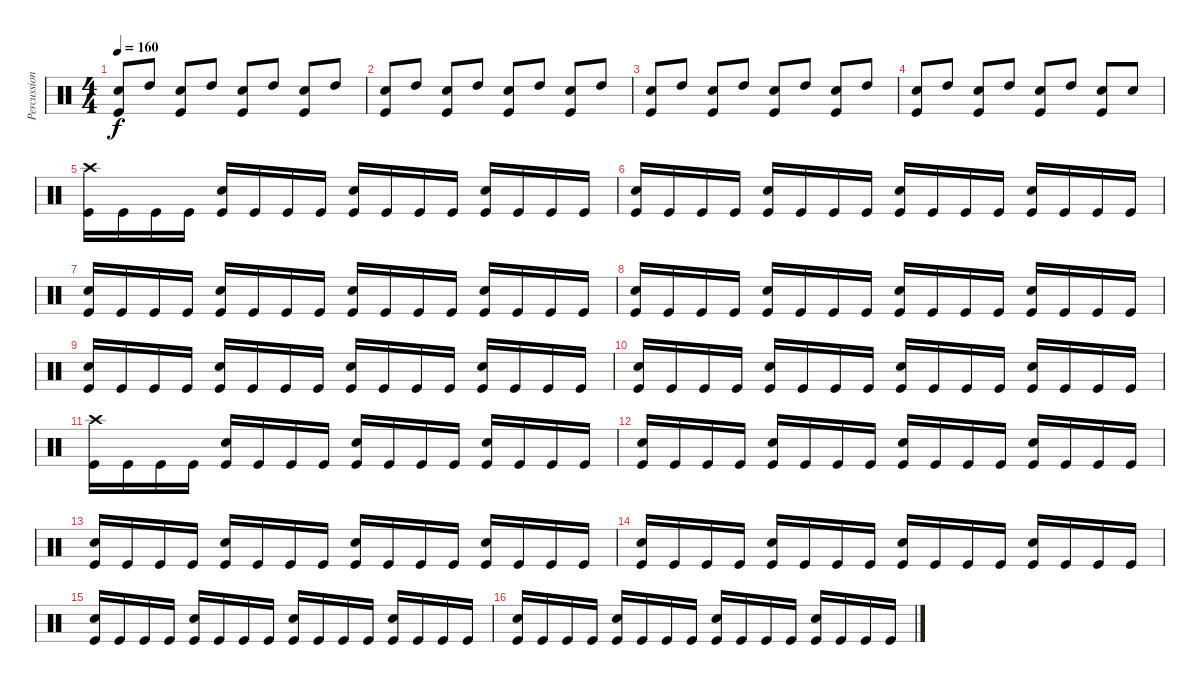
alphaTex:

\track ("Percussioni" "Percussion") {instrument percussion}
\staff {score}
\articulation defaults
\ts (4 4)
\tempo 160
\clef neutral
\ks c
("Snare (hit) 2" "Kick (hit)").8{dy f} "High Tom (hit)".8 ("Snare (hit) 2" "Kick (hit)").8 "High Tom (hit)".8 ("Snare (hit) 2" "Kick (hit)").8 "High Tom (hit)".8 ("Snare (hit) 2" "Kick (hit)").8 "High Tom (hit)".8 |
("Snare (hit) 2" "Kick (hit)").8 "High Tom (hit)".8 ("Snare (hit) 2" "Kick (hit)").8 "High Tom (hit)".8 ("Snare (hit) 2" "Kick (hit)").8 "High Tom (hit)".8 ("Snare (hit) 2" "Kick (hit)").8 "High Tom (hit)".8 |
("Snare (hit) 2" "Kick (hit)").8 "High Tom (hit)".8 ("Snare (hit) 2" "Kick (hit)").8 "High Tom (hit)".8 ("Snare (hit) 2" "Kick (hit)").8 "High Tom (hit)".8 ("Snare (hit) 2" "Kick (hit)").8 "High Tom (hit)".8 |
("Snare (hit) 2" "Kick (hit)").8 "High Tom (hit)".8 ("Snare (hit) 2" "Kick (hit)").8 "High Tom (hit)".8 ("Snare (hit) 2" "Kick (hit)").8 "High Tom (hit)".8 ("Snare (hit) 2" "Kick (hit)").8 "Snare (hit) 2".8 |
("Crash high (hit)" "Kick (hit)").16 "Kick (hit)".16 "Kick (hit)".16 "Kick (hit)".16 ("Snare (hit) 2" "Kick (hit)").16 "Kick (hit)".16 "Kick (hit)".16 "Kick (hit)".16 ("Snare (hit) 2" "Kick (hit)").16 "Kick (hit)".16 "Kick (hit)".16 "Kick (hit)".16 ("Snare (hit) 2" "Kick (hit)").16 "Kick (hit)".16 "Kick (hit)".16 "Kick (hit)".16 |
("Snare (hit) 2" "Kick (hit)").16 "Kick (hit)".16 "Kick (hit)".16 "Kick (hit)".16 ("Snare (hit) 2" "Kick (hit)").16 "Kick (hit)".16 "Kick (hit)".16 "Kick (hit)".16 ("Snare (hit) 2" "Kick (hit)").16 "Kick (hit)".16 "Kick (hit)".16 "Kick (hit)".16 ("Snare (hit) 2" "Kick (hit)").16 "Kick (hit)".16 "Kick (hit)".16 "Kick (hit)".16 |
("Snare (hit) 2" "Kick (hit)").16 "Kick (hit)".16 "Kick (hit)".16 "Kick (hit)".16 ("Snare (hit) 2" "Kick (hit)").16 "Kick (hit)".16 "Kick (hit)".16 "Kick (hit)".16 ("Snare (hit) 2" "Kick (hit)").16 "Kick (hit)".16 "Kick (hit)".16 "Kick (hit)".16 ("Snare (hit) 2" "Kick (hit)").16 "Kick (hit)".16 "Kick (hit)".16 "Kick (hit)".16 |
("Snare (hit) 2" "Kick (hit)").16 "Kick (hit)".16 "Kick (hit)".16 "Kick (hit)".16 ("Snare (hit) 2" "Kick (hit)").16 "Kick (hit)".16 "Kick (hit)".16 "Kick (hit)".16 ("Snare (hit) 2" "Kick (hit)").16 "Kick (hit)".16 "Kick (hit)".16 "Kick (hit)".16 ("Snare (hit) 2" "Kick (hit)").16 "Kick (hit)".16 "Kick (hit)".16 "Kick (hit)".16 |
("Snare (hit) 2" "Kick (hit)").16 "Kick (hit)".16 "Kick (hit)".16 "Kick (hit)".16 ("Snare (hit) 2" "Kick (hit)").16 "Kick (hit)".16 "Kick (hit)".16 "Kick (hit)".16 ("Snare (hit) 2" "Kick (hit)").16 "Kick (hit)".16 "Kick (hit)".16 "Kick (hit)".16 ("Snare (hit) 2" "Kick (hit)").16 "Kick (hit)".16 "Kick (hit)".16 "Kick (hit)".16 |
("Snare (hit) 2" "Kick (hit)").16 "Kick (hit)".16 "Kick (hit)".16 "Kick (hit)".16 ("Snare (hit) 2" "Kick (hit)").16 "Kick (hit)".16 "Kick (hit)".16 "Kick (hit)".16 ("Snare (hit) 2" "Kick (hit)").16 "Kick (hit)".16 "Kick (hit)".16 "Kick (hit)".16 ("Snare (hit) 2" "Kick (hit)").16 "Kick (hit)".16 "Kick (hit)".16 "Kick (hit)".16 |
("Crash high (hit)" "Kick (hit)").16 "Kick (hit)".16 "Kick (hit)".16 "Kick (hit)".16 ("Snare (hit) 2" "Kick (hit)").16 "Kick (hit)".16 "Kick (hit)".16 "Kick (hit)".16 ("Snare (hit) 2" "Kick (hit)").16 "Kick (hit)".16 "Kick (hit)".16 "Kick (hit)".16 ("Snare (hit) 2" "Kick (hit)").16 "Kick (hit)".16 "Kick (hit)".16 "Kick (hit)".16 |
("Snare (hit) 2" "Kick (hit)").16 "Kick (hit)".16 "Kick (hit)".16 "Kick (hit)".16 ("Snare (hit) 2" "Kick (hit)").16 "Kick (hit)".16 "Kick (hit)".16 "Kick (hit)".16 ("Snare (hit) 2" "Kick (hit)").16 "Kick (hit)".16 "Kick (hit)".16 "Kick (hit)".16 ("Snare (hit) 2" "Kick (hit)").16 "Kick (hit)".16 "Kick (hit)".16 "Kick (hit)".16 |
("Snare (hit) 2" "Kick (hit)").16 "Kick (hit)".16 "Kick (hit)".16 "Kick (hit)".16 ("Snare (hit) 2" "Kick (hit)").16 "Kick (hit)".16 "Kick (hit)".16 "Kick (hit)".16 ("Snare (hit) 2" "Kick (hit)").16 "Kick (hit)".16 "Kick (hit)".16 "Kick (hit)".16 ("Snare (hit) 2" "Kick (hit)").16 "Kick (hit)".16 "Kick (hit)".16 "Kick (hit)".16 |
("Snare (hit) 2" "Kick (hit)").16 "Kick (hit)".16 "Kick (hit)".16 "Kick (hit)".16 ("Snare (hit) 2" "Kick (hit)").16 "Kick (hit)".16 "Kick (hit)".16 "Kick (hit)".16 ("Snare (hit) 2" "Kick (hit)").16 "Kick (hit)".16 "Kick (hit)".16 "Kick (hit)".16 ("Snare (hit) 2" "Kick (hit)").16 "Kick (hit)".16 "Kick (hit)".16 "Kick (hit)".16 |
("Snare (hit) 2" "Kick (hit)").16 "Kick (hit)".16 "Kick (hit)".16 "Kick (hit)".16 ("Snare (hit) 2" "Kick (hit)").16 "Kick (hit)".16 "Kick (hit)".16 "Kick (hit)".16 ("Snare (hit) 2" "Kick (hit)").16 "Kick (hit)".16 "Kick (hit)".16 "Kick (hit)".16 ("Snare (hit) 2" "Kick (hit)").16 "Kick (hit)".16 "Kick (hit)".16 "Kick (hit)".16 |
("Snare (hit) 2" "Kick (hit)").16 "Kick (hit)".16 "Kick (hit)".16 "Kick (hit)".16 ("Snare (hit) 2" "Kick (hit)").16 "Kick (hit)".16 "Kick (hit)".16 "Kick (hit)".16 ("Snare (hit) 2" "Kick (hit)").16 "Kick (hit)".16 "Kick (hit)".16 "Kick (hit)".16 ("Snare (hit) 2" "Kick (hit)").16 "Kick (hit)".16 "Kick (hit)".16 "Kick (hit)".16
